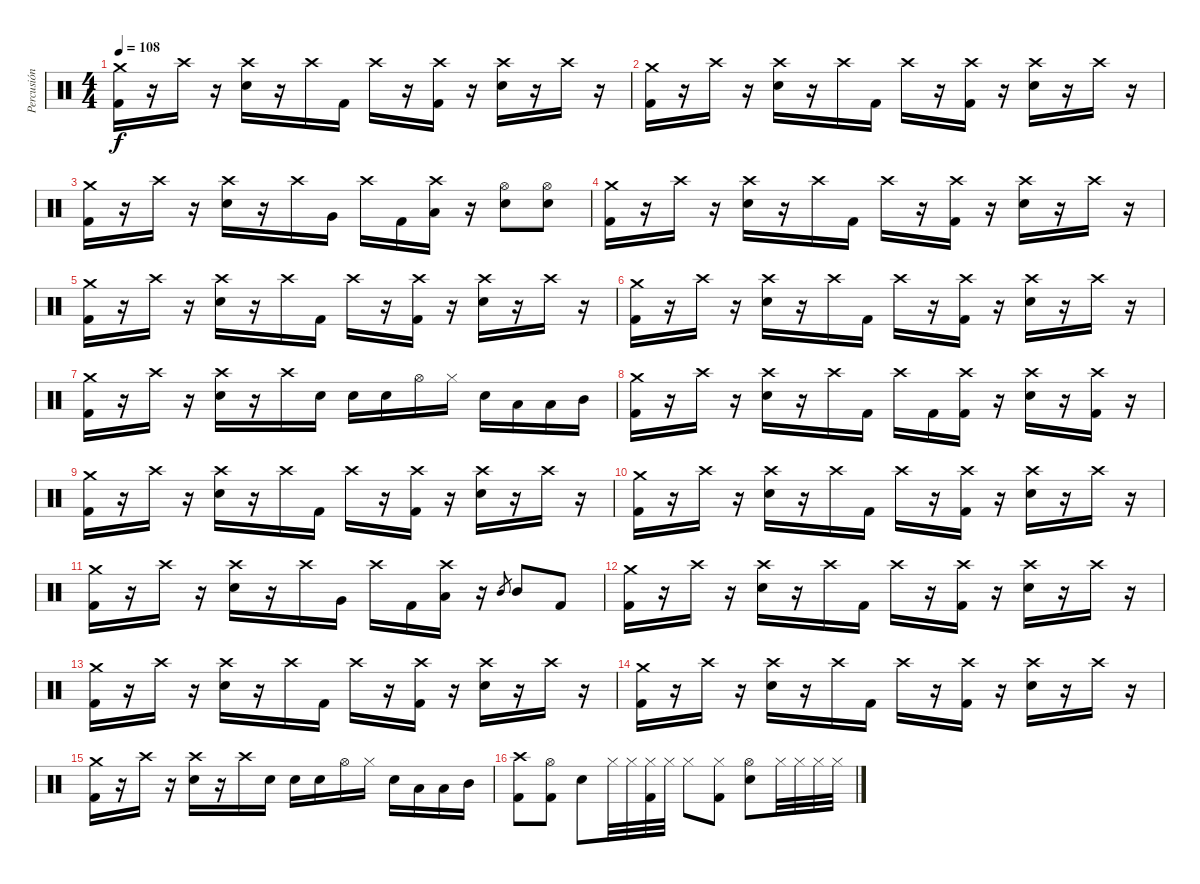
\track ("Percusión" "Percusión") {instrument percussion}
\staff {score}
\articulation defaults
\ts (4 4)
\tempo 108
\clef neutral
\ks c
("Crash medium (hit)" "Kick (hit) 2").16{dy f} r.16 "Crash high (hit)".16 r.16 ("Crash high (hit)" "Electric Snare (hit)").16 r.16 "Crash high (hit)".16 "Kick (hit) 2".16 "Crash high (hit)".16 r.16 ("Crash high (hit)" "Kick (hit) 2").16 r.16 ("Crash high (hit)" "Electric Snare (hit)").16 r.16 "Crash high (hit)".16 r.16 |
("Crash medium (hit)" "Kick (hit) 2").16 r.16 "Crash high (hit)".16 r.16 ("Crash high (hit)" "Electric Snare (hit)").16 r.16 "Crash high (hit)".16 "Kick (hit) 2".16 "Crash high (hit)".16 r.16 ("Crash high (hit)" "Kick (hit) 2").16 r.16 ("Crash high (hit)" "Electric Snare (hit)").16 r.16 "Crash high (hit)".16 r.16 |
("Crash medium (hit)" "Kick (hit) 2").16 r.16 "Crash high (hit)".16 r.16 ("Crash high (hit)" "Electric Snare (hit)").16 r.16 "Crash high (hit)".16 "Very Low Tom (hit)".16 "Crash high (hit)".16 "Kick (hit) 2".16 ("Crash high (hit)" "Low Tom (hit)").16 r.16 ("Hi-Hat (open)" "Electric Snare (hit)").8 ("Hi-Hat (open)" "Electric Snare (hit)").8 |
("Crash medium (hit)" "Kick (hit) 2").16 r.16 "Crash high (hit)".16 r.16 ("Crash high (hit)" "Electric Snare (hit)").16 r.16 "Crash high (hit)".16 "Kick (hit) 2".16 "Crash high (hit)".16 r.16 ("Crash high (hit)" "Kick (hit) 2").16 r.16 ("Crash high (hit)" "Electric Snare (hit)").16 r.16 "Crash high (hit)".16 r.16 |
("Crash medium (hit)" "Kick (hit) 2").16 r.16 "Crash high (hit)".16 r.16 ("Crash high (hit)" "Electric Snare (hit)").16 r.16 "Crash high (hit)".16 "Kick (hit) 2".16 "Crash high (hit)".16 r.16 ("Crash high (hit)" "Kick (hit) 2").16 r.16 ("Crash high (hit)" "Electric Snare (hit)").16 r.16 "Crash high (hit)".16 r.16 |
("Crash medium (hit)" "Kick (hit) 2").16 r.16 "Crash high (hit)".16 r.16 ("Crash high (hit)" "Electric Snare (hit)").16 r.16 "Crash high (hit)".16 "Kick (hit) 2".16 "Crash high (hit)".16 r.16 ("Crash high (hit)" "Kick (hit) 2").16 r.16 ("Crash high (hit)" "Electric Snare (hit)").16 r.16 "Crash high (hit)".16 r.16 |
("Crash medium (hit)" "Kick (hit) 2").16 r.16 "Crash high (hit)".16 r.16 ("Crash high (hit)" "Electric Snare (hit)").16 r.16 "Crash high (hit)".16 "Electric Snare (hit)".16 "Electric Snare (hit)".16 "Electric Snare (hit)".16 "Hi-Hat (open)".16 "Hi-Hat (closed)".16 "Electric Snare (hit)".16 "Low Tom (hit)".16 "Low Tom (hit)".16 "Mid Tom (hit)".16 |
("Crash medium (hit)" "Kick (hit) 2").16 r.16 "Crash high (hit)".16 r.16 ("Crash high (hit)" "Electric Snare (hit)").16 r.16 "Crash high (hit)".16 "Kick (hit) 2".16 "Crash high (hit)".16 "Kick (hit) 2".16 ("Crash high (hit)" "Kick (hit) 2").16 r.16 ("Crash high (hit)" "Electric Snare (hit)").16 r.16 ("Crash high (hit)" "Kick (hit) 2").16 r.16 |
("Crash medium (hit)" "Kick (hit) 2").16 r.16 "Crash high (hit)".16 r.16 ("Crash high (hit)" "Electric Snare (hit)").16 r.16 "Crash high (hit)".16 "Kick (hit) 2".16 "Crash high (hit)".16 r.16 ("Crash high (hit)" "Kick (hit) 2").16 r.16 ("Crash high (hit)" "Electric Snare (hit)").16 r.16 "Crash high (hit)".16 r.16 |
("Crash medium (hit)" "Kick (hit) 2").16 r.16 "Crash high (hit)".16 r.16 ("Crash high (hit)" "Electric Snare (hit)").16 r.16 "Crash high (hit)".16 "Kick (hit) 2".16 "Crash high (hit)".16 r.16 ("Crash high (hit)" "Kick (hit) 2").16 r.16 ("Crash high (hit)" "Electric Snare (hit)").16 r.16 "Crash high (hit)".16 r.16 |
("Crash medium (hit)" "Kick (hit) 2").16 r.16 "Crash high (hit)".16 r.16 ("Crash high (hit)" "Electric Snare (hit)").16 r.16 "Crash high (hit)".16 "Very Low Tom (hit)".16 "Crash high (hit)".16 "Kick (hit) 2".16 ("Crash high (hit)" "Low Tom (hit)").16 r.16 "Mid Tom (hit)".8{gr} "Mid Tom (hit)".8 "Kick (hit) 2".8 |
("Crash medium (hit)" "Kick (hit) 2").16 r.16 "Crash high (hit)".16 r.16 ("Crash high (hit)" "Electric Snare (hit)").16 r.16 "Crash high (hit)".16 "Kick (hit) 2".16 "Crash high (hit)".16 r.16 ("Crash high (hit)" "Kick (hit) 2").16 r.16 ("Crash high (hit)" "Electric Snare (hit)").16 r.16 "Crash high (hit)".16 r.16 |
("Crash medium (hit)" "Kick (hit) 2").16 r.16 "Crash high (hit)".16 r.16 ("Crash high (hit)" "Electric Snare (hit)").16 r.16 "Crash high (hit)".16 "Kick (hit) 2".16 "Crash high (hit)".16 r.16 ("Crash high (hit)" "Kick (hit) 2").16 r.16 ("Crash high (hit)" "Electric Snare (hit)").16 r.16 "Crash high (hit)".16 r.16 |
("Crash medium (hit)" "Kick (hit) 2").16 r.16 "Crash high (hit)".16 r.16 ("Crash high (hit)" "Electric Snare (hit)").16 r.16 "Crash high (hit)".16 "Kick (hit) 2".16 "Crash high (hit)".16 r.16 ("Crash high (hit)" "Kick (hit) 2").16 r.16 ("Crash high (hit)" "Electric Snare (hit)").16 r.16 "Crash high (hit)".16 r.16 |
("Crash medium (hit)" "Kick (hit) 2").16 r.16 "Crash high (hit)".16 r.16 ("Crash high (hit)" "Electric Snare (hit)").16 r.16 "Crash high (hit)".16 "Electric Snare (hit)".16 "Electric Snare (hit)".16 "Electric Snare (hit)".16 "Hi-Hat (open)".16 "Hi-Hat (closed)".16 "Electric Snare (hit)".16 "Low Tom (hit)".16 "Low Tom (hit)".16 "Mid Tom (hit)".16 |
("Crash high (hit)" "Kick (hit) 2").8 ("Hi-Hat (open)" "Kick (hit) 2").8 "Electric Snare (hit)".8 "Hi-Hat (closed)".32 "Hi-Hat (closed)".32 ("Hi-Hat (closed)" "Kick (hit) 2").32 "Hi-Hat (closed)".32 "Hi-Hat (closed)".8 ("Hi-Hat (closed)" "Kick (hit) 2").8 ("Hi-Hat (open)" "Electric Snare (hit)").8 "Hi-Hat (closed)".32 "Hi-Hat (closed)".32 "Hi-Hat (closed)".32 "Hi-Hat (closed)".32
